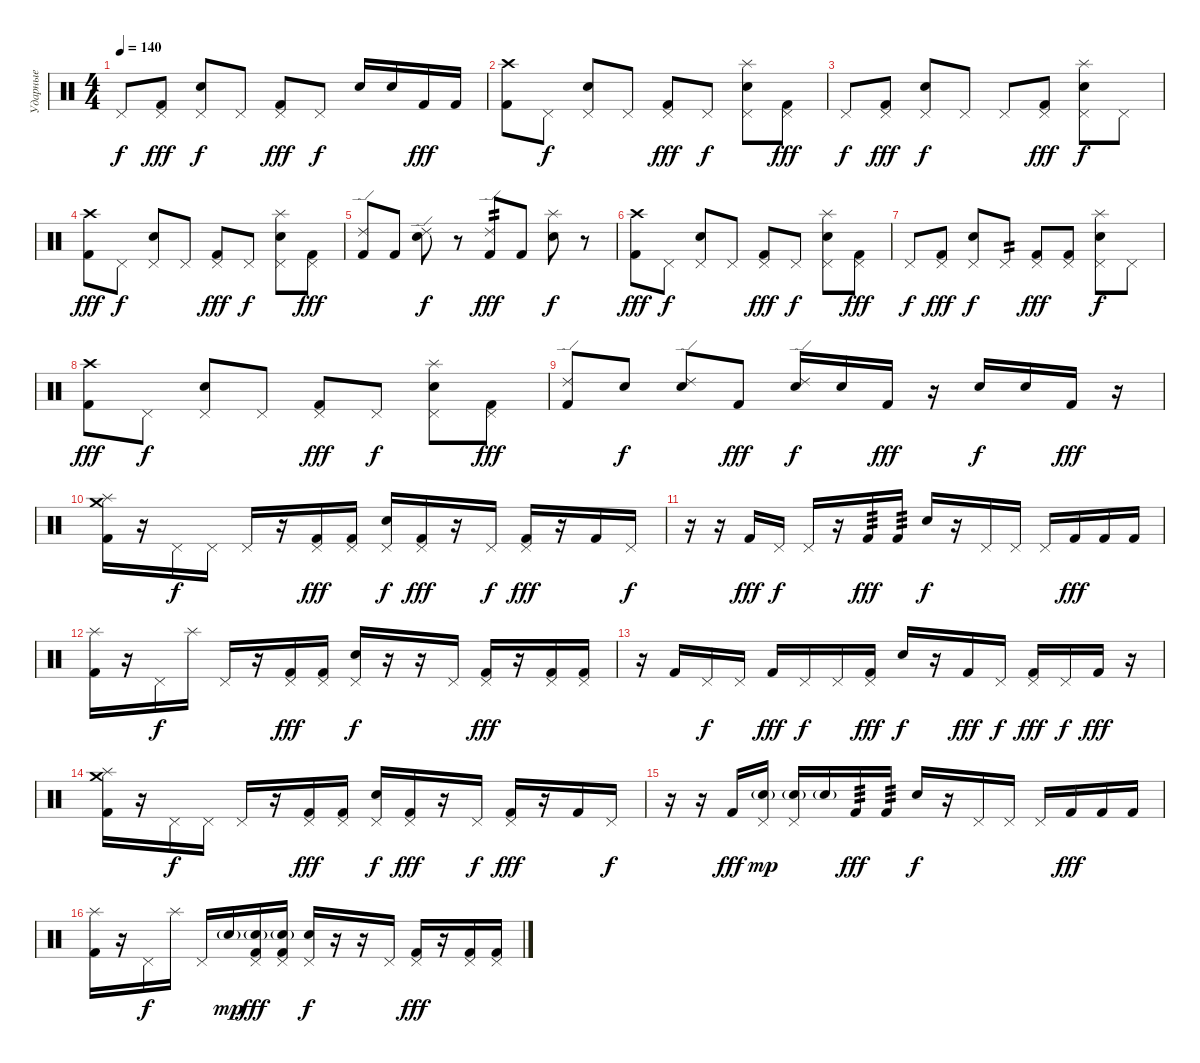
\track ("Ударные" "Ударные") {instrument percussion}
\staff {score}
\articulation defaults
\ts (4 4)
\tempo 140
\clef neutral
\ks c "Pedal Hi-Hat (hit)".8{dy f}
("Pedal Hi-Hat (hit)" "Kick (hit) 2").8{dy fff} ("Pedal Hi-Hat (hit)" "Electric Snare (hit)").8{dy f} "Pedal Hi-Hat (hit)".8 ("Pedal Hi-Hat (hit)" "Kick (hit) 2").8{dy fff} "Pedal Hi-Hat (hit)".8{dy f} "Electric Snare (hit)".16 "Electric Snare (hit)".16 "Kick (hit) 2".16{dy fff} "Kick (hit) 2".16 |
("Crash high (hit)" "Kick (hit) 2").8 "Pedal Hi-Hat (hit)".8{dy f} ("Pedal Hi-Hat (hit)" "Electric Snare (hit)").8 "Pedal Hi-Hat (hit)".8 ("Pedal Hi-Hat (hit)" "Kick (hit) 2").8{dy fff} "Pedal Hi-Hat (hit)".8{dy f} ("Splash (hit)" "Pedal Hi-Hat (hit)" "Electric Snare (hit)").8 ("Pedal Hi-Hat (hit)" "Kick (hit) 2").8{dy fff} |
"Pedal Hi-Hat (hit)".8{dy f} ("Pedal Hi-Hat (hit)" "Kick (hit) 2").8{dy fff} ("Pedal Hi-Hat (hit)" "Electric Snare (hit)").8{dy f} "Pedal Hi-Hat (hit)".8 "Pedal Hi-Hat (hit)".8 ("Pedal Hi-Hat (hit)" "Kick (hit) 2").8{dy fff} ("Splash (hit)" "Pedal Hi-Hat (hit)" "Electric Snare (hit)").8{dy f} "Pedal Hi-Hat (hit)".8 |
("Crash high (hit)" "Kick (hit) 2").8{dy fff} "Pedal Hi-Hat (hit)".8{dy f} ("Pedal Hi-Hat (hit)" "Electric Snare (hit)").8 "Pedal Hi-Hat (hit)".8 ("Pedal Hi-Hat (hit)" "Kick (hit) 2").8{dy fff} "Pedal Hi-Hat (hit)".8{dy f} ("Splash (hit)" "Pedal Hi-Hat (hit)" "Electric Snare (hit)").8 ("Pedal Hi-Hat (hit)" "Kick (hit) 2").8{dy fff} |
("Ride (edge) 2" "Kick (hit) 2").8 "Kick (hit) 2".8 ("Ride (edge) 2" "Electric Snare (hit)").8{dy f} r.8 ("Ride (edge) 2" "Kick (hit) 2").8{tp 2 dy fff} "Kick (hit) 2".8 ("Splash (hit)" "Electric Snare (hit)").8{dy f} r.8 |
("Crash high (hit)" "Kick (hit) 2").8{dy fff} "Pedal Hi-Hat (hit)".8{dy f} ("Pedal Hi-Hat (hit)" "Electric Snare (hit)").8 "Pedal Hi-Hat (hit)".8 ("Pedal Hi-Hat (hit)" "Kick (hit) 2").8{dy fff} "Pedal Hi-Hat (hit)".8{dy f} ("Splash (hit)" "Pedal Hi-Hat (hit)" "Electric Snare (hit)").8 ("Pedal Hi-Hat (hit)" "Kick (hit) 2").8{dy fff} |
"Pedal Hi-Hat (hit)".8{dy f} ("Pedal Hi-Hat (hit)" "Kick (hit) 2").8{dy fff} ("Pedal Hi-Hat (hit)" "Electric Snare (hit)").8{dy f} "Pedal Hi-Hat (hit)".8{tp 2} ("Pedal Hi-Hat (hit)" "Kick (hit) 2").8{dy fff} ("Pedal Hi-Hat (hit)" "Kick (hit) 2").8 ("Splash (hit)" "Pedal Hi-Hat (hit)" "Electric Snare (hit)").8{dy f} "Pedal Hi-Hat (hit)".8 |
("Crash high (hit)" "Kick (hit) 2").8{dy fff} "Pedal Hi-Hat (hit)".8{dy f} ("Pedal Hi-Hat (hit)" "Electric Snare (hit)").8 "Pedal Hi-Hat (hit)".8 ("Pedal Hi-Hat (hit)" "Kick (hit) 2").8{dy fff} "Pedal Hi-Hat (hit)".8{dy f} ("Splash (hit)" "Pedal Hi-Hat (hit)" "Electric Snare (hit)").8 ("Pedal Hi-Hat (hit)" "Kick (hit) 2").8{dy fff} |
("Ride (edge) 2" "Kick (hit) 2").8 "Electric Snare (hit)".8{dy f} ("Ride (edge) 2" "Electric Snare (hit)").8 "Kick (hit) 2".8{dy fff} ("Ride (edge) 2" "Electric Snare (hit)").16{dy f} "Electric Snare (hit)".16 "Kick (hit) 2".16{dy fff} r.16 "Electric Snare (hit)".16{dy f} "Electric Snare (hit)".16 "Kick (hit) 2".16{dy fff} r.16 |
("Crash medium (hit)" "Splash (hit)" "Kick (hit) 2").16 r.16 "Pedal Hi-Hat (hit)".16{dy f} "Pedal Hi-Hat (hit)".16 "Pedal Hi-Hat (hit)".16 r.16 ("Pedal Hi-Hat (hit)" "Kick (hit) 2").16{dy fff} ("Pedal Hi-Hat (hit)" "Kick (hit) 2").16 ("Pedal Hi-Hat (hit)" "Electric Snare (hit)").16{dy f} ("Pedal Hi-Hat (hit)" "Kick (hit) 2").16{dy fff} r.16 "Pedal Hi-Hat (hit)".16{dy f} ("Pedal Hi-Hat (hit)" "Kick (hit) 2").16{dy fff} r.16 "Kick (hit) 2".16 "Pedal Hi-Hat (hit)".16{dy f} |
r.16 r.16 "Kick (hit) 2".16{dy fff} "Pedal Hi-Hat (hit)".16{dy f} "Pedal Hi-Hat (hit)".16 r.16 "Kick (hit) 2".16{tp 3 dy fff} "Kick (hit) 2".16{tp 3} "Electric Snare (hit)".16{dy f} r.16 "Pedal Hi-Hat (hit)".16 "Pedal Hi-Hat (hit)".16 "Pedal Hi-Hat (hit)".16 "Kick (hit) 2".16{dy fff} "Kick (hit) 2".16 "Kick (hit) 2".16 |
("Splash (hit)" "Kick (hit) 2").16 r.16 "Pedal Hi-Hat (hit)".16{dy f} "Splash (hit)".16 "Pedal Hi-Hat (hit)".16 r.16 ("Pedal Hi-Hat (hit)" "Kick (hit) 2").16{dy fff} ("Pedal Hi-Hat (hit)" "Kick (hit) 2").16 ("Pedal Hi-Hat (hit)" "Electric Snare (hit)").16{dy f} r.16 r.16 "Pedal Hi-Hat (hit)".16 ("Pedal Hi-Hat (hit)" "Kick (hit) 2").16{dy fff} r.16 ("Pedal Hi-Hat (hit)" "Kick (hit) 2").16 ("Pedal Hi-Hat (hit)" "Kick (hit) 2").16 |
r.16 "Kick (hit) 2".16 "Pedal Hi-Hat (hit)".16{dy f} "Pedal Hi-Hat (hit)".16 "Kick (hit) 2".16{dy fff} "Pedal Hi-Hat (hit)".16{dy f} "Pedal Hi-Hat (hit)".16 ("Pedal Hi-Hat (hit)" "Kick (hit) 2").16{dy fff} "Electric Snare (hit)".16{dy f} r.16 "Kick (hit) 2".16{dy fff} "Pedal Hi-Hat (hit)".16{dy f} ("Pedal Hi-Hat (hit)" "Kick (hit) 2").16{dy fff} "Pedal Hi-Hat (hit)".16{dy f} "Kick (hit) 2".16{dy fff} r.16 |
("Crash medium (hit)" "Splash (hit)" "Kick (hit) 2").16 r.16 "Pedal Hi-Hat (hit)".16{dy f} "Pedal Hi-Hat (hit)".16 "Pedal Hi-Hat (hit)".16 r.16 ("Pedal Hi-Hat (hit)" "Kick (hit) 2").16{dy fff} ("Pedal Hi-Hat (hit)" "Kick (hit) 2").16 ("Pedal Hi-Hat (hit)" "Electric Snare (hit)").16{dy f} ("Pedal Hi-Hat (hit)" "Kick (hit) 2").16{dy fff} r.16 "Pedal Hi-Hat (hit)".16{dy f} ("Pedal Hi-Hat (hit)" "Kick (hit) 2").16{dy fff} r.16 "Kick (hit) 2".16 "Pedal Hi-Hat (hit)".16{dy f} |
r.16 r.16 "Kick (hit) 2".16{dy fff} ("Pedal Hi-Hat (hit)" "Electric Snare (hit)"{g}).16{dy mp} ("Pedal Hi-Hat (hit)" "Electric Snare (hit)"{g}).16 "Electric Snare (hit)"{g}.16 "Kick (hit) 2".16{tp 3 dy fff} "Kick (hit) 2".16{tp 3} "Electric Snare (hit)".16{dy f} r.16 "Pedal Hi-Hat (hit)".16 "Pedal Hi-Hat (hit)".16 "Pedal Hi-Hat (hit)".16 "Kick (hit) 2".16{dy fff} "Kick (hit) 2".16 "Kick (hit) 2".16 |
("Splash (hit)" "Kick (hit) 2").16 r.16 "Pedal Hi-Hat (hit)".16{dy f} "Splash (hit)".16 "Pedal Hi-Hat (hit)".16 "Electric Snare (hit)"{g}.16{dy mp} ("Pedal Hi-Hat (hit)" "Electric Snare (hit)"{g} "Kick (hit) 2").16{dy fff} ("Pedal Hi-Hat (hit)" "Electric Snare (hit)"{g} "Kick (hit) 2").16 ("Pedal Hi-Hat (hit)" "Electric Snare (hit)").16{dy f} r.16 r.16 "Pedal Hi-Hat (hit)".16 ("Pedal Hi-Hat (hit)" "Kick (hit) 2").16{dy fff} r.16 ("Pedal Hi-Hat (hit)" "Kick (hit) 2").16 ("Pedal Hi-Hat (hit)" "Kick (hit) 2").16
